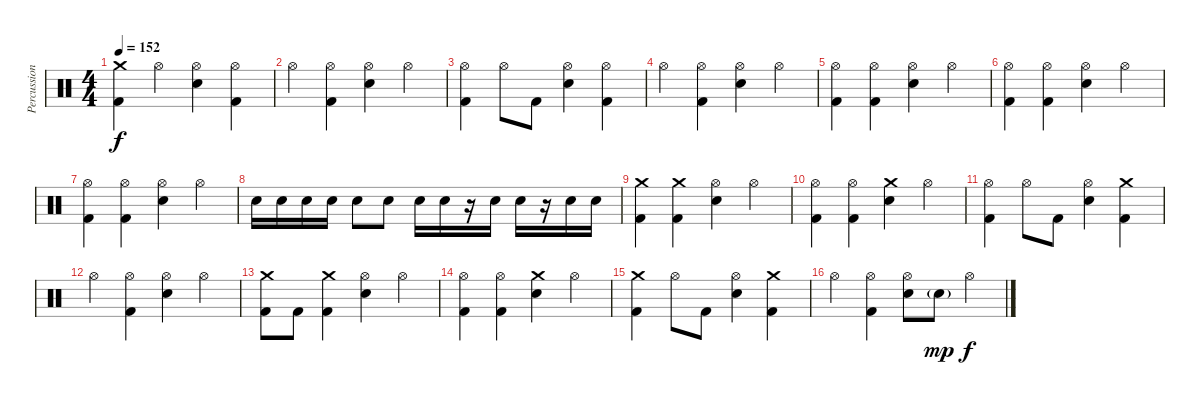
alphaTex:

\track ("Percussion" "Percussion") {instrument percussion}
\staff {score}
\articulation defaults
\ts (4 4)
\tempo 152
\clef neutral
\ks c
("Crash medium (hit)" "Kick (hit) 2").4{dy f} "Hi-Hat (open)".4 ("Hi-Hat (open)" "Electric Snare (hit)").4 ("Hi-Hat (open)" "Kick (hit) 2").4 |
"Hi-Hat (open)".4 ("Hi-Hat (open)" "Kick (hit) 2").4 ("Hi-Hat (open)" "Electric Snare (hit)").4 "Hi-Hat (open)".4 |
("Hi-Hat (open)" "Kick (hit) 2").4 "Hi-Hat (open)".8 "Kick (hit) 2".8 ("Hi-Hat (open)" "Electric Snare (hit)").4 ("Hi-Hat (open)" "Kick (hit) 2").4 |
"Hi-Hat (open)".4 ("Hi-Hat (open)" "Kick (hit) 2").4 ("Hi-Hat (open)" "Electric Snare (hit)").4 "Hi-Hat (open)".4 |
("Hi-Hat (open)" "Kick (hit) 2").4 ("Hi-Hat (open)" "Kick (hit) 2").4 ("Hi-Hat (open)" "Electric Snare (hit)").4 "Hi-Hat (open)".4 |
("Hi-Hat (open)" "Kick (hit) 2").4 ("Hi-Hat (open)" "Kick (hit) 2").4 ("Hi-Hat (open)" "Electric Snare (hit)").4 "Hi-Hat (open)".4 |
("Hi-Hat (open)" "Kick (hit) 2").4 ("Hi-Hat (open)" "Kick (hit) 2").4 ("Hi-Hat (open)" "Electric Snare (hit)").4 "Hi-Hat (open)".4 |
"Electric Snare (hit)".16 "Electric Snare (hit)".16 "Electric Snare (hit)".16 "Electric Snare (hit)".16 "Electric Snare (hit)".8 "Electric Snare (hit)".8 "Electric Snare (hit)".16 "Electric Snare (hit)".16 r.16 "Electric Snare (hit)".16 "Electric Snare (hit)".16 r.16 "Electric Snare (hit)".16 "Electric Snare (hit)".16 |
("Crash medium (hit)" "Kick (hit) 2").4 ("Crash medium (hit)" "Kick (hit) 2").4 ("Hi-Hat (open)" "Electric Snare (hit)").4 "Hi-Hat (open)".4 |
("Hi-Hat (open)" "Kick (hit) 2").4 ("Hi-Hat (open)" "Kick (hit) 2").4 ("Crash medium (hit)" "Electric Snare (hit)").4 "Hi-Hat (open)".4 |
("Hi-Hat (open)" "Kick (hit) 2").4 "Hi-Hat (open)".8 "Kick (hit) 2".8 ("Hi-Hat (open)" "Electric Snare (hit)").4 ("Crash medium (hit)" "Kick (hit) 2").4 |
"Hi-Hat (open)".4 ("Hi-Hat (open)" "Kick (hit) 2").4 ("Hi-Hat (open)" "Electric Snare (hit)").4 "Hi-Hat (open)".4 |
("Crash medium (hit)" "Kick (hit) 2").8 "Kick (hit) 2".8 ("Crash medium (hit)" "Kick (hit) 2").4 ("Hi-Hat (open)" "Electric Snare (hit)").4 "Hi-Hat (open)".4 |
("Hi-Hat (open)" "Kick (hit) 2").4 ("Hi-Hat (open)" "Kick (hit) 2").4 ("Crash medium (hit)" "Electric Snare (hit)").4 "Hi-Hat (open)".4 |
("Crash medium (hit)" "Kick (hit) 2").4 "Hi-Hat (open)".8 "Kick (hit) 2".8 ("Hi-Hat (open)" "Electric Snare (hit)").4 ("Crash medium (hit)" "Kick (hit) 2").4 |
"Hi-Hat (open)".4 ("Hi-Hat (open)" "Kick (hit) 2").4 ("Hi-Hat (open)" "Electric Snare (hit)").8 "Electric Snare (hit)"{g}.8{dy mp} "Hi-Hat (open)".4{dy f}
